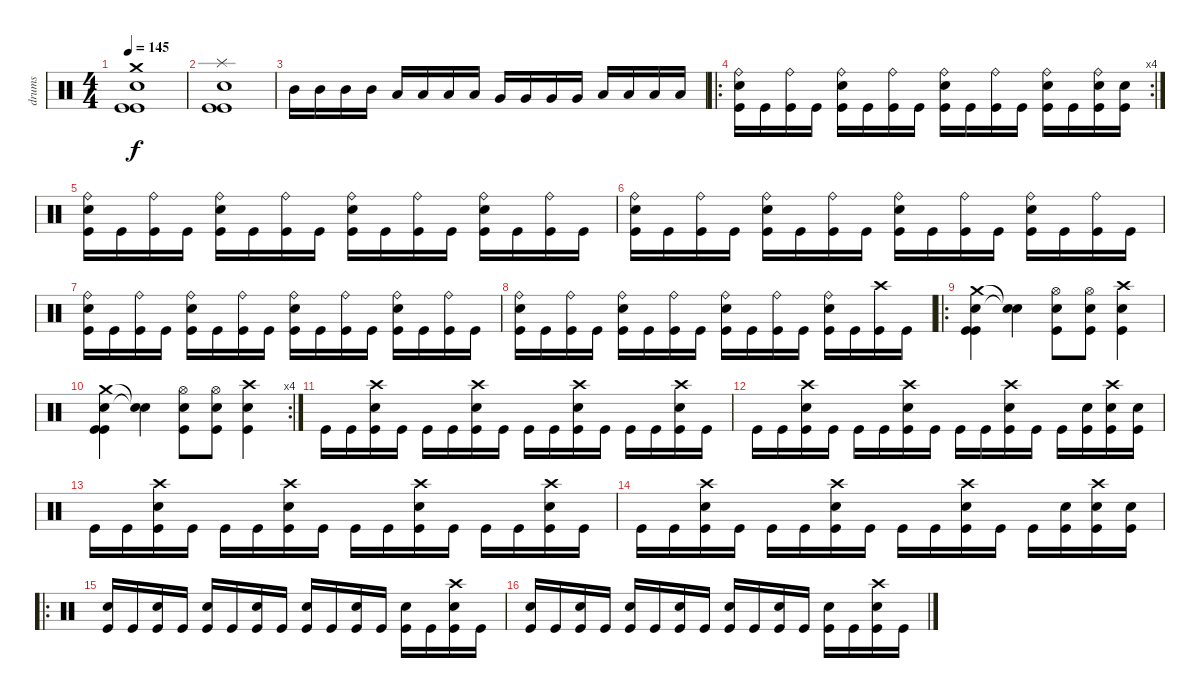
\track ("drums" "drums") {instrument percussion}
\staff {score}
\articulation defaults
\ts (4 4)
\tempo 145
\clef neutral
\ks c
("Crash medium (hit)" "Electric Snare (hit)" "Kick (hit)" "Kick (hit)").1{dy f} |
("Splash (hit)" "Electric Snare (hit)" "Kick (hit)" "Kick (hit)").1 |
"Mid Tom (hit)".16 "Mid Tom (hit)".16 "Mid Tom (hit)".16 "Mid Tom (hit)".16 "Low Tom (hit)".16 "Low Tom (hit)".16 "Low Tom (hit)".16 "Low Tom (hit)".16 "Very Low Tom (hit)".16 "Very Low Tom (hit)".16 "Very Low Tom (hit)".16 "Very Low Tom (hit)".16 "Low Floor Tom (hit)".16 "Low Floor Tom (hit)".16 "Low Floor Tom (hit)".16 "Low Floor Tom (hit)".16 |
\ro
\rc 4
("Ride (bell)" "Electric Snare (hit)" "Kick (hit)").16 "Kick (hit)".16 ("Ride (bell)" "Kick (hit)").16 "Kick (hit)".16 ("Ride (bell)" "Electric Snare (hit)" "Kick (hit)").16 "Kick (hit)".16 ("Ride (bell)" "Kick (hit)").16 "Kick (hit)".16 ("Ride (bell)" "Electric Snare (hit)" "Kick (hit)").16 "Kick (hit)".16 ("Ride (bell)" "Kick (hit)").16 "Kick (hit)".16 ("Ride (bell)" "Electric Snare (hit)" "Kick (hit)").16 "Kick (hit)".16 ("Ride (bell)" "Electric Snare (hit)" "Kick (hit)").16 ("Electric Snare (hit)" "Kick (hit)").16 |
("Ride (bell)" "Electric Snare (hit)" "Kick (hit)").16 "Kick (hit)".16 ("Ride (bell)" "Kick (hit)").16 "Kick (hit)".16 ("Ride (bell)" "Electric Snare (hit)" "Kick (hit)").16 "Kick (hit)".16 ("Ride (bell)" "Kick (hit)").16 "Kick (hit)".16 ("Ride (bell)" "Electric Snare (hit)" "Kick (hit)").16 "Kick (hit)".16 ("Ride (bell)" "Kick (hit)").16 "Kick (hit)".16 ("Ride (bell)" "Electric Snare (hit)" "Kick (hit)").16 "Kick (hit)".16 ("Ride (bell)" "Kick (hit)").16 "Kick (hit)".16 |
("Ride (bell)" "Electric Snare (hit)" "Kick (hit)").16 "Kick (hit)".16 ("Ride (bell)" "Kick (hit)").16 "Kick (hit)".16 ("Ride (bell)" "Electric Snare (hit)" "Kick (hit)").16 "Kick (hit)".16 ("Ride (bell)" "Kick (hit)").16 "Kick (hit)".16 ("Ride (bell)" "Electric Snare (hit)" "Kick (hit)").16 "Kick (hit)".16 ("Ride (bell)" "Kick (hit)").16 "Kick (hit)".16 ("Ride (bell)" "Electric Snare (hit)" "Kick (hit)").16 "Kick (hit)".16 ("Ride (bell)" "Kick (hit)").16 "Kick (hit)".16 |
("Ride (bell)" "Electric Snare (hit)" "Kick (hit)").16 "Kick (hit)".16 ("Ride (bell)" "Kick (hit)").16 "Kick (hit)".16 ("Ride (bell)" "Electric Snare (hit)" "Kick (hit)").16 "Kick (hit)".16 ("Ride (bell)" "Kick (hit)").16 "Kick (hit)".16 ("Ride (bell)" "Electric Snare (hit)" "Kick (hit)").16 "Kick (hit)".16 ("Ride (bell)" "Kick (hit)").16 "Kick (hit)".16 ("Ride (bell)" "Electric Snare (hit)" "Kick (hit)").16 "Kick (hit)".16 ("Ride (bell)" "Kick (hit)").16 "Kick (hit)".16 |
("Ride (bell)" "Electric Snare (hit)" "Kick (hit)").16 "Kick (hit)".16 ("Ride (bell)" "Kick (hit)").16 "Kick (hit)".16 ("Ride (bell)" "Electric Snare (hit)" "Kick (hit)").16 "Kick (hit)".16 ("Ride (bell)" "Kick (hit)").16 "Kick (hit)".16 ("Ride (bell)" "Electric Snare (hit)" "Kick (hit)").16 "Kick (hit)".16 ("Ride (bell)" "Kick (hit)").16 "Kick (hit)".16 ("Ride (bell)" "Electric Snare (hit)" "Kick (hit)").16 "Kick (hit)".16 ("Crash high (hit)" "Kick (hit)").16 "Kick (hit)".16 |
\ro
("Electric Snare (hit)" "Crash medium (hit)" "Kick (hit)" "Kick (hit)").4 ("Snare (hit)"{t} "Snare (hit)"{t}).4 ("Electric Snare (hit)" "Hi-Hat (open)" "Kick (hit)").8 ("Electric Snare (hit)" "Hi-Hat (open)" "Kick (hit)").8 ("Electric Snare (hit)" "Crash high (hit)" "Kick (hit)").4 |
\rc 4
("Electric Snare (hit)" "Crash medium (hit)" "Kick (hit)" "Kick (hit)").4 ("Snare (hit)"{t} "Snare (hit)"{t}).4 ("Electric Snare (hit)" "Hi-Hat (open)" "Kick (hit)").8 ("Electric Snare (hit)" "Hi-Hat (open)" "Kick (hit)").8 ("Electric Snare (hit)" "Crash high (hit)" "Kick (hit)").4 |
"Kick (hit)".16 "Kick (hit)".16 ("Crash high (hit)" "Electric Snare (hit)" "Kick (hit)").16 "Kick (hit)".16 "Kick (hit)".16 "Kick (hit)".16 ("Crash high (hit)" "Electric Snare (hit)" "Kick (hit)").16 "Kick (hit)".16 "Kick (hit)".16 "Kick (hit)".16 ("Crash high (hit)" "Electric Snare (hit)" "Kick (hit)").16 "Kick (hit)".16 "Kick (hit)".16 "Kick (hit)".16 ("Crash high (hit)" "Electric Snare (hit)" "Kick (hit)").16 "Kick (hit)".16 |
"Kick (hit)".16 "Kick (hit)".16 ("Crash high (hit)" "Electric Snare (hit)" "Kick (hit)").16 "Kick (hit)".16 "Kick (hit)".16 "Kick (hit)".16 ("Crash high (hit)" "Electric Snare (hit)" "Kick (hit)").16 "Kick (hit)".16 "Kick (hit)".16 "Kick (hit)".16 ("Crash high (hit)" "Electric Snare (hit)" "Kick (hit)").16 "Kick (hit)".16 "Kick (hit)".16 ("Electric Snare (hit)" "Kick (hit)").16 ("Crash high (hit)" "Electric Snare (hit)" "Kick (hit)").16 ("Electric Snare (hit)" "Kick (hit)").16 |
"Kick (hit)".16 "Kick (hit)".16 ("Crash high (hit)" "Electric Snare (hit)" "Kick (hit)").16 "Kick (hit)".16 "Kick (hit)".16 "Kick (hit)".16 ("Crash high (hit)" "Electric Snare (hit)" "Kick (hit)").16 "Kick (hit)".16 "Kick (hit)".16 "Kick (hit)".16 ("Crash high (hit)" "Electric Snare (hit)" "Kick (hit)").16 "Kick (hit)".16 "Kick (hit)".16 "Kick (hit)".16 ("Crash high (hit)" "Electric Snare (hit)" "Kick (hit)").16 "Kick (hit)".16 |
"Kick (hit)".16 "Kick (hit)".16 ("Crash high (hit)" "Electric Snare (hit)" "Kick (hit)").16 "Kick (hit)".16 "Kick (hit)".16 "Kick (hit)".16 ("Crash high (hit)" "Electric Snare (hit)" "Kick (hit)").16 "Kick (hit)".16 "Kick (hit)".16 "Kick (hit)".16 ("Crash high (hit)" "Electric Snare (hit)" "Kick (hit)").16 "Kick (hit)".16 "Kick (hit)".16 ("Electric Snare (hit)" "Kick (hit)").16 ("Crash high (hit)" "Electric Snare (hit)" "Kick (hit)").16 ("Electric Snare (hit)" "Kick (hit)").16 |
\ro
("Electric Snare (hit)" "Kick (hit)").16 "Kick (hit)".16 ("Electric Snare (hit)" "Kick (hit)").16 "Kick (hit)".16 ("Electric Snare (hit)" "Kick (hit)").16 "Kick (hit)".16 ("Electric Snare (hit)" "Kick (hit)").16 "Kick (hit)".16 ("Electric Snare (hit)" "Kick (hit)").16 "Kick (hit)".16 ("Electric Snare (hit)" "Kick (hit)").16 "Kick (hit)".16 ("Electric Snare (hit)" "Kick (hit)").16 "Kick (hit)".16 ("Electric Snare (hit)" "Crash high (hit)" "Kick (hit)").16 "Kick (hit)".16 |
("Electric Snare (hit)" "Kick (hit)").16 "Kick (hit)".16 ("Electric Snare (hit)" "Kick (hit)").16 "Kick (hit)".16 ("Electric Snare (hit)" "Kick (hit)").16 "Kick (hit)".16 ("Electric Snare (hit)" "Kick (hit)").16 "Kick (hit)".16 ("Electric Snare (hit)" "Kick (hit)").16 "Kick (hit)".16 ("Electric Snare (hit)" "Kick (hit)").16 "Kick (hit)".16 ("Electric Snare (hit)" "Kick (hit)").16 "Kick (hit)".16 ("Electric Snare (hit)" "Crash high (hit)" "Kick (hit)").16 "Kick (hit)".16
